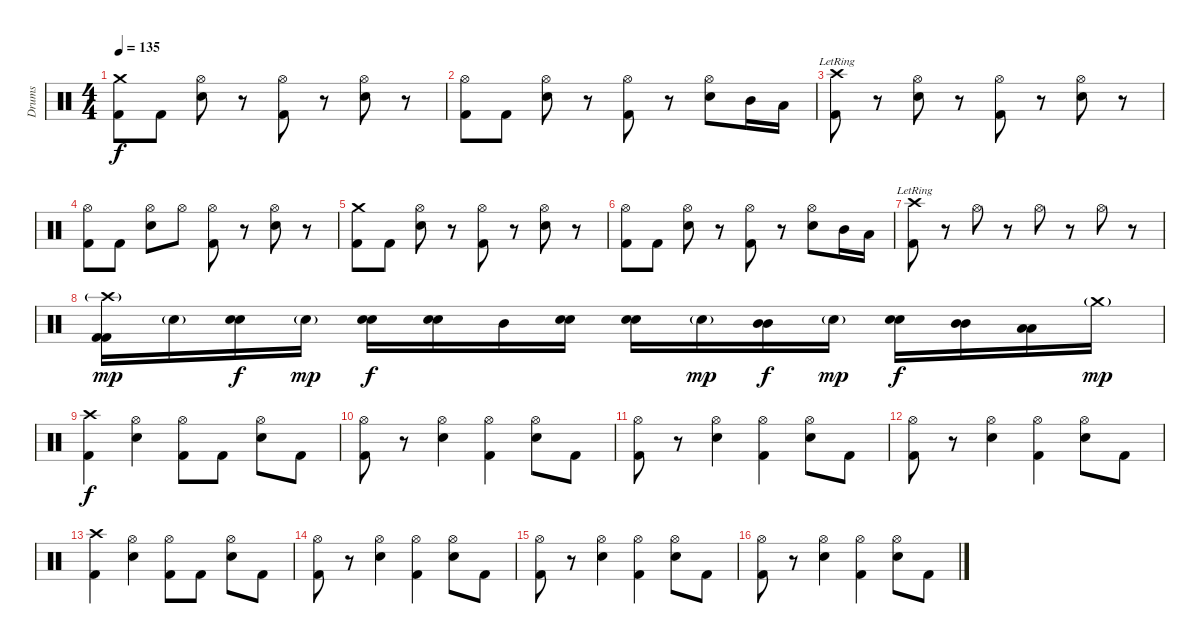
\track ("Drums" "Drums") {instrument percussion}
\staff {score}
\articulation defaults
\ts (4 4)
\tempo 135
\clef neutral
\ks c
("Crash medium (hit)" "Kick (hit) 2").8{dy f} "Kick (hit) 2".8 ("Hi-Hat (open)" "Electric Snare (hit)").8 r.8 ("Hi-Hat (open)" "Kick (hit) 2").8 r.8 ("Hi-Hat (open)" "Electric Snare (hit)").8 r.8 |
("Hi-Hat (open)" "Kick (hit) 2").8 "Kick (hit) 2".8 ("Hi-Hat (open)" "Electric Snare (hit)").8 r.8 ("Hi-Hat (open)" "Kick (hit) 2").8 r.8 ("Hi-Hat (open)" "Electric Snare (hit)").8 "Mid Tom (hit)".16 "Low Tom (hit)".16 |
("Crash high (hit)"{lr} "Kick (hit) 2").8 r.8 ("Hi-Hat (open)" "Electric Snare (hit)").8 r.8 ("Hi-Hat (open)" "Kick (hit) 2").8 r.8 ("Hi-Hat (open)" "Electric Snare (hit)").8 r.8 |
("Hi-Hat (open)" "Kick (hit) 2").8 "Kick (hit) 2".8 ("Hi-Hat (open)" "Electric Snare (hit)").8 "Hi-Hat (open)".8 ("Hi-Hat (open)" "Kick (hit) 2").8 r.8 ("Hi-Hat (open)" "Electric Snare (hit)").8 r.8 |
("Crash medium (hit)" "Kick (hit) 2").8 "Kick (hit) 2".8 ("Hi-Hat (open)" "Electric Snare (hit)").8 r.8 ("Hi-Hat (open)" "Kick (hit) 2").8 r.8 ("Hi-Hat (open)" "Electric Snare (hit)").8 r.8 |
("Hi-Hat (open)" "Kick (hit) 2").8 "Kick (hit) 2".8 ("Hi-Hat (open)" "Electric Snare (hit)").8 r.8 ("Hi-Hat (open)" "Kick (hit) 2").8 r.8 ("Hi-Hat (open)" "Electric Snare (hit)").8 "Mid Tom (hit)".16 "Low Tom (hit)".16 |
("Crash high (hit)"{lr} "Kick (hit) 2").8 r.8 "Hi-Hat (open)".8 r.8 "Hi-Hat (open)".8 r.8 "Hi-Hat (open)".8 r.8 |
("Crash high (hit)"{g} "Kick (hit) 2" "Kick (hit) 2").16{dy mp} "Electric Snare (hit)"{g}.16 ("Electric Snare (hit)" "Electric Snare (hit)").16{dy f} "Electric Snare (hit)"{g}.16{dy mp} ("Electric Snare (hit)" "Electric Snare (hit)").16{dy f} ("Electric Snare (hit)" "Electric Snare (hit)").16 "Mid Tom (hit)".16 ("Electric Snare (hit)" "Electric Snare (hit)").16 ("Electric Snare (hit)" "Electric Snare (hit)").16 "Electric Snare (hit)"{g}.16{dy mp} ("Mid Tom (hit)" "Mid Tom (hit)").16{dy f} "Electric Snare (hit)"{g}.16{dy mp} ("Electric Snare (hit)" "Electric Snare (hit)").16{dy f} ("Mid Tom (hit)" "Mid Tom (hit)").16 ("Low Tom (hit)" "Low Tom (hit)").16 "Crash medium (hit)"{g}.16{dy mp} |
("Crash high (hit)" "Kick (hit) 2").4{dy f} ("Hi-Hat (open)" "Electric Snare (hit)").4 ("Hi-Hat (open)" "Kick (hit) 2").8 "Kick (hit) 2".8 ("Hi-Hat (open)" "Electric Snare (hit)").8 "Kick (hit) 2".8 |
("Hi-Hat (open)" "Kick (hit) 2").8 r.8 ("Hi-Hat (open)" "Electric Snare (hit)").4 ("Hi-Hat (open)" "Kick (hit) 2").4 ("Hi-Hat (open)" "Electric Snare (hit)").8 "Kick (hit) 2".8 |
("Hi-Hat (open)" "Kick (hit) 2").8 r.8 ("Hi-Hat (open)" "Electric Snare (hit)").4 ("Hi-Hat (open)" "Kick (hit) 2").4 ("Hi-Hat (open)" "Electric Snare (hit)").8 "Kick (hit) 2".8 |
("Hi-Hat (open)" "Kick (hit) 2").8 r.8 ("Hi-Hat (open)" "Electric Snare (hit)").4 ("Hi-Hat (open)" "Kick (hit) 2").4 ("Hi-Hat (open)" "Electric Snare (hit)").8 "Kick (hit) 2".8 |
("Crash high (hit)" "Kick (hit) 2").4 ("Hi-Hat (open)" "Electric Snare (hit)").4 ("Hi-Hat (open)" "Kick (hit) 2").8 "Kick (hit) 2".8 ("Hi-Hat (open)" "Electric Snare (hit)").8 "Kick (hit) 2".8 |
("Hi-Hat (open)" "Kick (hit) 2").8 r.8 ("Hi-Hat (open)" "Electric Snare (hit)").4 ("Hi-Hat (open)" "Kick (hit) 2").4 ("Hi-Hat (open)" "Electric Snare (hit)").8 "Kick (hit) 2".8 |
("Hi-Hat (open)" "Kick (hit) 2").8 r.8 ("Hi-Hat (open)" "Electric Snare (hit)").4 ("Hi-Hat (open)" "Kick (hit) 2").4 ("Hi-Hat (open)" "Electric Snare (hit)").8 "Kick (hit) 2".8 |
("Hi-Hat (open)" "Kick (hit) 2").8 r.8 ("Hi-Hat (open)" "Electric Snare (hit)").4 ("Hi-Hat (open)" "Kick (hit) 2").4 ("Hi-Hat (open)" "Electric Snare (hit)").8 "Kick (hit) 2".8
